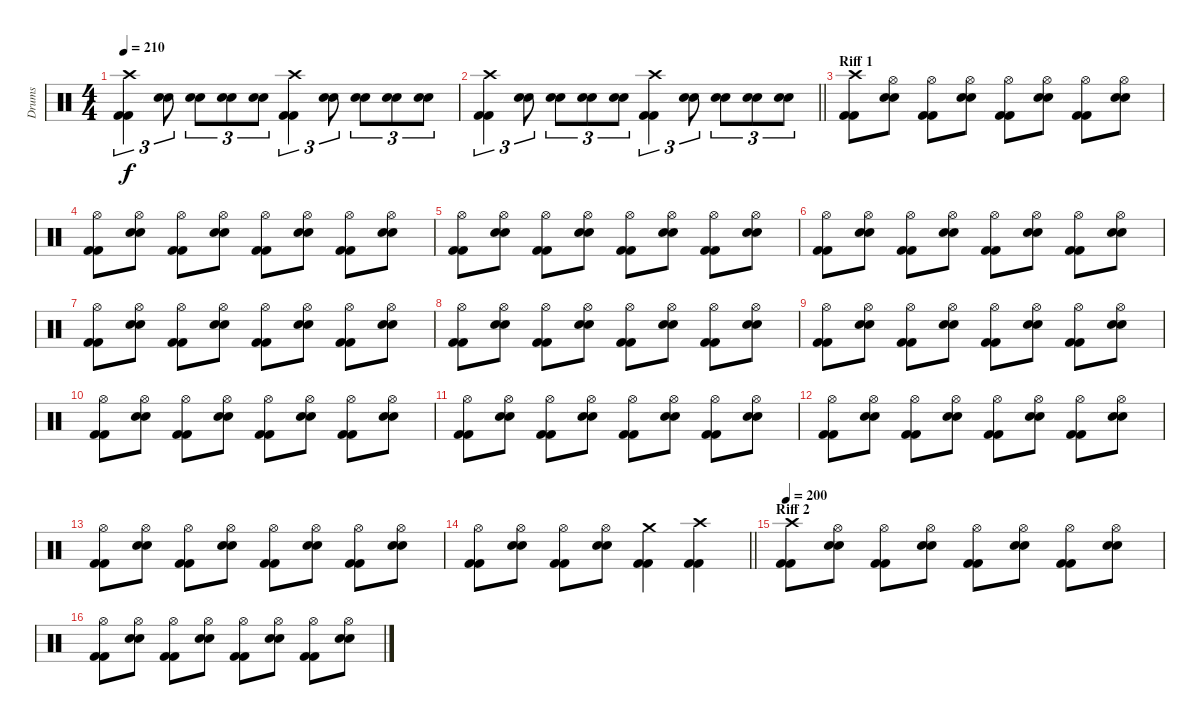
\track ("Drums" "Drums") {instrument percussion}
\staff {score}
\articulation defaults
\ts (4 4)
\tempo 210
\clef neutral
\ks c
("Crash high (hit)" "Kick (hit) 2" "Kick (hit) 2").4{tu (3 2) dy f} ("Snare (hit) 2" "Snare (hit) 2").8{tu (3 2)} ("Snare (hit) 2" "Snare (hit) 2").8{tu (3 2)} ("Snare (hit) 2" "Snare (hit) 2").8{tu (3 2)} ("Snare (hit) 2" "Snare (hit) 2").8{tu (3 2)} ("Crash high (hit)" "Kick (hit) 2" "Kick (hit) 2").4{tu (3 2)} ("Snare (hit) 2" "Snare (hit) 2").8{tu (3 2)} ("Snare (hit) 2" "Snare (hit) 2").8{tu (3 2)} ("Snare (hit) 2" "Snare (hit) 2").8{tu (3 2)} ("Snare (hit) 2" "Snare (hit) 2").8{tu (3 2)} |
\barLineRight lightlight
("Crash high (hit)" "Kick (hit) 2" "Kick (hit) 2").4{tu (3 2)} ("Snare (hit) 2" "Snare (hit) 2").8{tu (3 2)} ("Snare (hit) 2" "Snare (hit) 2").8{tu (3 2)} ("Snare (hit) 2" "Snare (hit) 2").8{tu (3 2)} ("Snare (hit) 2" "Snare (hit) 2").8{tu (3 2)} ("Crash high (hit)" "Kick (hit) 2" "Kick (hit) 2").4{tu (3 2)} ("Snare (hit) 2" "Snare (hit) 2").8{tu (3 2)} ("Snare (hit) 2" "Snare (hit) 2").8{tu (3 2)} ("Snare (hit) 2" "Snare (hit) 2").8{tu (3 2)} ("Snare (hit) 2" "Snare (hit) 2").8{tu (3 2)} |
\section ("" "Riff 1")
("Crash high (hit)" "Kick (hit) 2" "Kick (hit) 2").8 ("Hi-Hat (open)" "Snare (hit) 2" "Snare (hit) 2").8 ("Hi-Hat (open)" "Kick (hit) 2" "Kick (hit) 2").8 ("Hi-Hat (open)" "Snare (hit) 2" "Snare (hit) 2").8 ("Hi-Hat (open)" "Kick (hit) 2" "Kick (hit) 2").8 ("Hi-Hat (open)" "Snare (hit) 2" "Snare (hit) 2").8 ("Hi-Hat (open)" "Kick (hit) 2" "Kick (hit) 2").8 ("Hi-Hat (open)" "Snare (hit) 2" "Snare (hit) 2").8 |
("Hi-Hat (open)" "Kick (hit) 2" "Kick (hit) 2").8 ("Hi-Hat (open)" "Snare (hit) 2" "Snare (hit) 2").8 ("Hi-Hat (open)" "Kick (hit) 2" "Kick (hit) 2").8 ("Hi-Hat (open)" "Snare (hit) 2" "Snare (hit) 2").8 ("Hi-Hat (open)" "Kick (hit) 2" "Kick (hit) 2").8 ("Hi-Hat (open)" "Snare (hit) 2" "Snare (hit) 2").8 ("Hi-Hat (open)" "Kick (hit) 2" "Kick (hit) 2").8 ("Hi-Hat (open)" "Snare (hit) 2" "Snare (hit) 2").8 |
("Hi-Hat (open)" "Kick (hit) 2" "Kick (hit) 2").8 ("Hi-Hat (open)" "Snare (hit) 2" "Snare (hit) 2").8 ("Hi-Hat (open)" "Kick (hit) 2" "Kick (hit) 2").8 ("Hi-Hat (open)" "Snare (hit) 2" "Snare (hit) 2").8 ("Hi-Hat (open)" "Kick (hit) 2" "Kick (hit) 2").8 ("Hi-Hat (open)" "Snare (hit) 2" "Snare (hit) 2").8 ("Hi-Hat (open)" "Kick (hit) 2" "Kick (hit) 2").8 ("Hi-Hat (open)" "Snare (hit) 2" "Snare (hit) 2").8 |
("Hi-Hat (open)" "Kick (hit) 2" "Kick (hit) 2").8 ("Hi-Hat (open)" "Snare (hit) 2" "Snare (hit) 2").8 ("Hi-Hat (open)" "Kick (hit) 2" "Kick (hit) 2").8 ("Hi-Hat (open)" "Snare (hit) 2" "Snare (hit) 2").8 ("Hi-Hat (open)" "Kick (hit) 2" "Kick (hit) 2").8 ("Hi-Hat (open)" "Snare (hit) 2" "Snare (hit) 2").8 ("Hi-Hat (open)" "Kick (hit) 2" "Kick (hit) 2").8 ("Hi-Hat (open)" "Snare (hit) 2" "Snare (hit) 2").8 |
("Hi-Hat (open)" "Kick (hit) 2" "Kick (hit) 2").8 ("Hi-Hat (open)" "Snare (hit) 2" "Snare (hit) 2").8 ("Hi-Hat (open)" "Kick (hit) 2" "Kick (hit) 2").8 ("Hi-Hat (open)" "Snare (hit) 2" "Snare (hit) 2").8 ("Hi-Hat (open)" "Kick (hit) 2" "Kick (hit) 2").8 ("Hi-Hat (open)" "Snare (hit) 2" "Snare (hit) 2").8 ("Hi-Hat (open)" "Kick (hit) 2" "Kick (hit) 2").8 ("Hi-Hat (open)" "Snare (hit) 2" "Snare (hit) 2").8 |
("Hi-Hat (open)" "Kick (hit) 2" "Kick (hit) 2").8 ("Hi-Hat (open)" "Snare (hit) 2" "Snare (hit) 2").8 ("Hi-Hat (open)" "Kick (hit) 2" "Kick (hit) 2").8 ("Hi-Hat (open)" "Snare (hit) 2" "Snare (hit) 2").8 ("Hi-Hat (open)" "Kick (hit) 2" "Kick (hit) 2").8 ("Hi-Hat (open)" "Snare (hit) 2" "Snare (hit) 2").8 ("Hi-Hat (open)" "Kick (hit) 2" "Kick (hit) 2").8 ("Hi-Hat (open)" "Snare (hit) 2" "Snare (hit) 2").8 |
("Hi-Hat (open)" "Kick (hit) 2" "Kick (hit) 2").8 ("Hi-Hat (open)" "Snare (hit) 2" "Snare (hit) 2").8 ("Hi-Hat (open)" "Kick (hit) 2" "Kick (hit) 2").8 ("Hi-Hat (open)" "Snare (hit) 2" "Snare (hit) 2").8 ("Hi-Hat (open)" "Kick (hit) 2" "Kick (hit) 2").8 ("Hi-Hat (open)" "Snare (hit) 2" "Snare (hit) 2").8 ("Hi-Hat (open)" "Kick (hit) 2" "Kick (hit) 2").8 ("Hi-Hat (open)" "Snare (hit) 2" "Snare (hit) 2").8 |
("Hi-Hat (open)" "Kick (hit) 2" "Kick (hit) 2").8 ("Hi-Hat (open)" "Snare (hit) 2" "Snare (hit) 2").8 ("Hi-Hat (open)" "Kick (hit) 2" "Kick (hit) 2").8 ("Hi-Hat (open)" "Snare (hit) 2" "Snare (hit) 2").8 ("Hi-Hat (open)" "Kick (hit) 2" "Kick (hit) 2").8 ("Hi-Hat (open)" "Snare (hit) 2" "Snare (hit) 2").8 ("Hi-Hat (open)" "Kick (hit) 2" "Kick (hit) 2").8 ("Hi-Hat (open)" "Snare (hit) 2" "Snare (hit) 2").8 |
("Hi-Hat (open)" "Kick (hit) 2" "Kick (hit) 2").8 ("Hi-Hat (open)" "Snare (hit) 2" "Snare (hit) 2").8 ("Hi-Hat (open)" "Kick (hit) 2" "Kick (hit) 2").8 ("Hi-Hat (open)" "Snare (hit) 2" "Snare (hit) 2").8 ("Hi-Hat (open)" "Kick (hit) 2" "Kick (hit) 2").8 ("Hi-Hat (open)" "Snare (hit) 2" "Snare (hit) 2").8 ("Hi-Hat (open)" "Kick (hit) 2" "Kick (hit) 2").8 ("Hi-Hat (open)" "Snare (hit) 2" "Snare (hit) 2").8 |
("Hi-Hat (open)" "Kick (hit) 2" "Kick (hit) 2").8 ("Hi-Hat (open)" "Snare (hit) 2" "Snare (hit) 2").8 ("Hi-Hat (open)" "Kick (hit) 2" "Kick (hit) 2").8 ("Hi-Hat (open)" "Snare (hit) 2" "Snare (hit) 2").8 ("Hi-Hat (open)" "Kick (hit) 2" "Kick (hit) 2").8 ("Hi-Hat (open)" "Snare (hit) 2" "Snare (hit) 2").8 ("Hi-Hat (open)" "Kick (hit) 2" "Kick (hit) 2").8 ("Hi-Hat (open)" "Snare (hit) 2" "Snare (hit) 2").8 |
("Hi-Hat (open)" "Kick (hit) 2" "Kick (hit) 2").8 ("Hi-Hat (open)" "Snare (hit) 2" "Snare (hit) 2").8 ("Hi-Hat (open)" "Kick (hit) 2" "Kick (hit) 2").8 ("Hi-Hat (open)" "Snare (hit) 2" "Snare (hit) 2").8 ("Hi-Hat (open)" "Kick (hit) 2" "Kick (hit) 2").8 ("Hi-Hat (open)" "Snare (hit) 2" "Snare (hit) 2").8 ("Hi-Hat (open)" "Kick (hit) 2" "Kick (hit) 2").8 ("Hi-Hat (open)" "Snare (hit) 2" "Snare (hit) 2").8 |
\barLineRight lightlight
("Hi-Hat (open)" "Kick (hit) 2" "Kick (hit) 2").8 ("Hi-Hat (open)" "Snare (hit) 2" "Snare (hit) 2").8 ("Hi-Hat (open)" "Kick (hit) 2" "Kick (hit) 2").8 ("Hi-Hat (open)" "Snare (hit) 2" "Snare (hit) 2").8 ("Crash medium (hit)" "Kick (hit) 2" "Kick (hit) 2").4 ("Crash high (hit)" "Kick (hit) 2" "Kick (hit) 2").4 |
\section ("" "Riff 2")
\tempo 200
("Crash high (hit)" "Kick (hit) 2" "Kick (hit) 2").8 ("Hi-Hat (open)" "Snare (hit) 2" "Snare (hit) 2").8 ("Hi-Hat (open)" "Kick (hit) 2" "Kick (hit) 2").8 ("Hi-Hat (open)" "Snare (hit) 2" "Snare (hit) 2").8 ("Hi-Hat (open)" "Kick (hit) 2" "Kick (hit) 2").8 ("Hi-Hat (open)" "Snare (hit) 2" "Snare (hit) 2").8 ("Hi-Hat (open)" "Kick (hit) 2" "Kick (hit) 2").8 ("Hi-Hat (open)" "Snare (hit) 2" "Snare (hit) 2").8 |
("Hi-Hat (open)" "Kick (hit) 2" "Kick (hit) 2").8 ("Hi-Hat (open)" "Snare (hit) 2" "Snare (hit) 2").8 ("Hi-Hat (open)" "Kick (hit) 2" "Kick (hit) 2").8 ("Hi-Hat (open)" "Snare (hit) 2" "Snare (hit) 2").8 ("Hi-Hat (open)" "Kick (hit) 2" "Kick (hit) 2").8 ("Hi-Hat (open)" "Snare (hit) 2" "Snare (hit) 2").8 ("Hi-Hat (open)" "Kick (hit) 2" "Kick (hit) 2").8 ("Hi-Hat (open)" "Snare (hit) 2" "Snare (hit) 2").8
